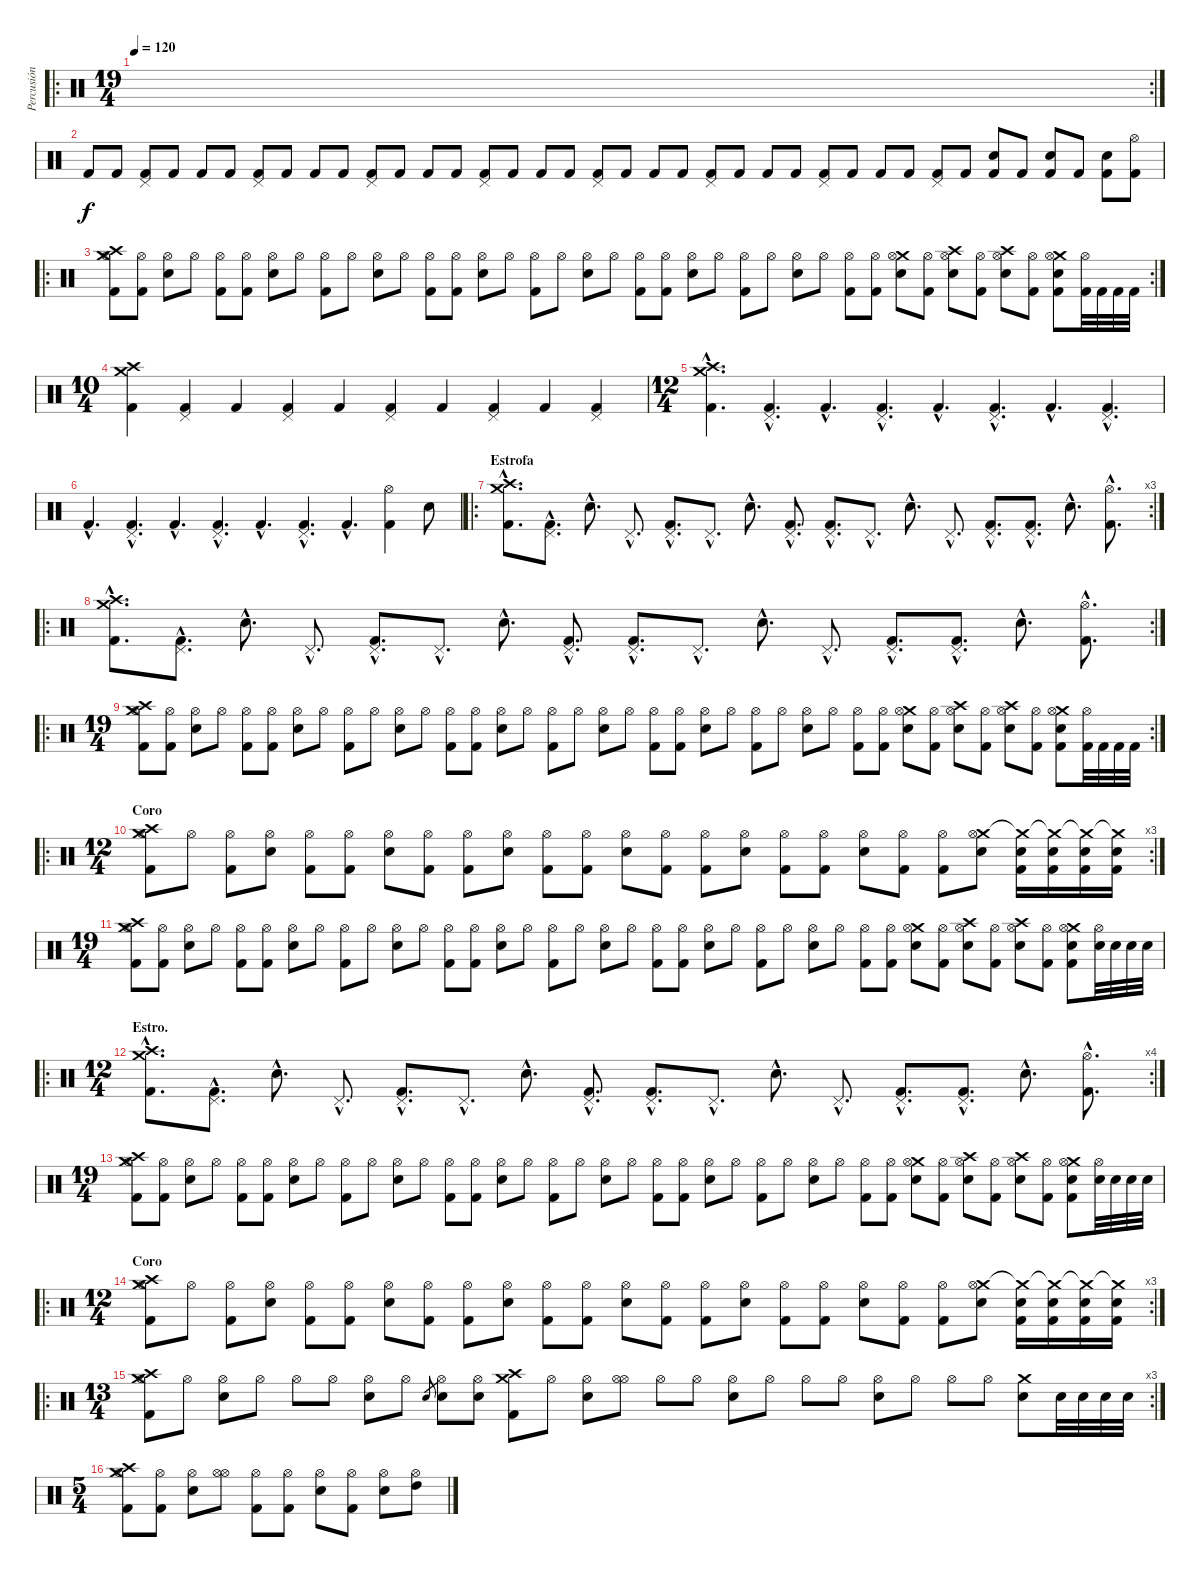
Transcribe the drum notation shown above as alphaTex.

\track ("Percusión" "Percusión") {instrument percussion}
\staff {score}
\articulation defaults
\ro
\rc 2
\ts (19 4)
\tempo 120
\clef neutral
\ks c
|
"Kick (hit) 2".8 "Kick (hit) 2".8 ("Pedal Hi-Hat (hit)" "Kick (hit) 2").8 "Kick (hit) 2".8 "Kick (hit) 2".8 "Kick (hit) 2".8 ("Pedal Hi-Hat (hit)" "Kick (hit) 2").8 "Kick (hit) 2".8 "Kick (hit) 2".8 "Kick (hit) 2".8 ("Pedal Hi-Hat (hit)" "Kick (hit) 2").8 "Kick (hit) 2".8 "Kick (hit) 2".8 "Kick (hit) 2".8 ("Pedal Hi-Hat (hit)" "Kick (hit) 2").8 "Kick (hit) 2".8 "Kick (hit) 2".8 "Kick (hit) 2".8 ("Pedal Hi-Hat (hit)" "Kick (hit) 2").8 "Kick (hit) 2".8 "Kick (hit) 2".8 "Kick (hit) 2".8 ("Pedal Hi-Hat (hit)" "Kick (hit) 2").8 "Kick (hit) 2".8 "Kick (hit) 2".8 "Kick (hit) 2".8 ("Pedal Hi-Hat (hit)" "Kick (hit) 2").8 "Kick (hit) 2".8 "Kick (hit) 2".8 "Kick (hit) 2".8 ("Pedal Hi-Hat (hit)" "Kick (hit) 2").8 "Kick (hit) 2".8 ("Electric Snare (hit)" "Kick (hit) 2").8 "Kick (hit) 2".8 ("Electric Snare (hit)" "Kick (hit) 2").8 "Kick (hit) 2".8 ("Electric Snare (hit)" "Kick (hit) 2").8 ("Hi-Hat (open)" "Kick (hit) 2").8 |
\ro
\rc 2
("Crash medium (hit)" "Crash high (hit)" "Hi-Hat (open)" "Kick (hit) 2").8 ("Hi-Hat (open)" "Kick (hit) 2").8 ("Hi-Hat (open)" "Electric Snare (hit)").8 "Hi-Hat (open)".8 ("Hi-Hat (open)" "Kick (hit) 2").8 ("Hi-Hat (open)" "Kick (hit) 2").8 ("Hi-Hat (open)" "Electric Snare (hit)").8 "Hi-Hat (open)".8 ("Hi-Hat (open)" "Kick (hit) 2").8 "Hi-Hat (open)".8 ("Hi-Hat (open)" "Electric Snare (hit)").8 "Hi-Hat (open)".8 ("Hi-Hat (open)" "Kick (hit) 2").8 ("Hi-Hat (open)" "Kick (hit) 2").8 ("Hi-Hat (open)" "Electric Snare (hit)").8 "Hi-Hat (open)".8 ("Hi-Hat (open)" "Kick (hit) 2").8 "Hi-Hat (open)".8 ("Hi-Hat (open)" "Electric Snare (hit)").8 "Hi-Hat (open)".8 ("Hi-Hat (open)" "Kick (hit) 2").8 ("Hi-Hat (open)" "Kick (hit) 2").8 ("Hi-Hat (open)" "Electric Snare (hit)").8 "Hi-Hat (open)".8 ("Hi-Hat (open)" "Kick (hit) 2").8 "Hi-Hat (open)".8 ("Hi-Hat (open)" "Electric Snare (hit)").8 "Hi-Hat (open)".8 ("Hi-Hat (open)" "Kick (hit) 2").8 ("Hi-Hat (open)" "Kick (hit) 2").8 ("Crash medium (hit)" "Hi-Hat (open)" "Electric Snare (hit)").8 ("Hi-Hat (open)" "Kick (hit) 2").8 ("Crash high (hit)" "Hi-Hat (open)" "Electric Snare (hit)").8 ("Hi-Hat (open)" "Kick (hit) 2").8 ("Crash high (hit)" "Hi-Hat (open)" "Electric Snare (hit)").8 ("Hi-Hat (open)" "Kick (hit) 2").8 ("Crash medium (hit)" "Hi-Hat (open)" "Electric Snare (hit)" "Kick (hit) 2").8 ("Hi-Hat (open)" "Kick (hit) 2").32 "Kick (hit) 2".32 "Kick (hit) 2".32 "Kick (hit) 2".32 |
\ts (10 4)
("Crash medium (hit)" "Crash high (hit)" "Kick (hit) 2").4 ("Pedal Hi-Hat (hit)" "Kick (hit) 2").4 "Kick (hit) 2".4 ("Pedal Hi-Hat (hit)" "Kick (hit) 2").4 "Kick (hit) 2".4 ("Pedal Hi-Hat (hit)" "Kick (hit) 2").4 "Kick (hit) 2".4 ("Pedal Hi-Hat (hit)" "Kick (hit) 2").4 "Kick (hit) 2".4 ("Pedal Hi-Hat (hit)" "Kick (hit) 2").4 |
\ts (12 4)
("Crash medium (hit)"{hac} "Crash high (hit)"{hac} "Kick (hit) 2"{hac}).4{d} ("Pedal Hi-Hat (hit)"{hac} "Kick (hit) 2"{hac}).4{d} "Kick (hit) 2"{hac}.4{d} ("Pedal Hi-Hat (hit)"{hac} "Kick (hit) 2"{hac}).4{d} "Kick (hit) 2"{hac}.4{d} ("Pedal Hi-Hat (hit)"{hac} "Kick (hit) 2"{hac}).4{d} "Kick (hit) 2"{hac}.4{d} ("Pedal Hi-Hat (hit)"{hac} "Kick (hit) 2"{hac}).4{d} |
"Kick (hit) 2"{hac}.4{d} ("Pedal Hi-Hat (hit)"{hac} "Kick (hit) 2"{hac}).4{d} "Kick (hit) 2"{hac}.4{d} ("Pedal Hi-Hat (hit)"{hac} "Kick (hit) 2"{hac}).4{d} "Kick (hit) 2"{hac}.4{d} ("Pedal Hi-Hat (hit)"{hac} "Kick (hit) 2"{hac}).4{d} "Kick (hit) 2"{hac}.4{d} ("Hi-Hat (open)" "Kick (hit) 2").4 "Electric Snare (hit)".8 |
\ro
\rc 3
\section ("" "Estrofa")
("Crash medium (hit)"{hac} "Crash high (hit)"{hac} "Kick (hit) 2"{hac}).8{d} ("Kick (hit) 2"{hac} "Pedal Hi-Hat (hit)"{hac}).8{d} "Electric Snare (hit)"{hac}.8{d} "Pedal Hi-Hat (hit)"{hac}.8{d} ("Kick (hit) 2"{hac} "Pedal Hi-Hat (hit)"{hac}).8{d} "Pedal Hi-Hat (hit)"{hac}.8{d} "Electric Snare (hit)"{hac}.8{d} ("Kick (hit) 2"{hac} "Pedal Hi-Hat (hit)"{hac}).8{d} ("Kick (hit) 2"{hac} "Pedal Hi-Hat (hit)"{hac}).8{d} "Pedal Hi-Hat (hit)"{hac}.8{d} "Electric Snare (hit)"{hac}.8{d} "Pedal Hi-Hat (hit)"{hac}.8{d} ("Kick (hit) 2"{hac} "Pedal Hi-Hat (hit)"{hac}).8{d} ("Kick (hit) 2"{hac} "Pedal Hi-Hat (hit)"{hac}).8{d} "Electric Snare (hit)"{hac}.8{d} ("Hi-Hat (open)"{hac} "Kick (hit) 2"{hac}).8{d} |
\ro
\rc 2
("Crash medium (hit)"{hac} "Crash high (hit)"{hac} "Kick (hit) 2"{hac}).8{d} ("Kick (hit) 2"{hac} "Pedal Hi-Hat (hit)"{hac}).8{d} "Electric Snare (hit)"{hac}.8{d} "Pedal Hi-Hat (hit)"{hac}.8{d} ("Kick (hit) 2"{hac} "Pedal Hi-Hat (hit)"{hac}).8{d} "Pedal Hi-Hat (hit)"{hac}.8{d} "Electric Snare (hit)"{hac}.8{d} ("Kick (hit) 2"{hac} "Pedal Hi-Hat (hit)"{hac}).8{d} ("Kick (hit) 2"{hac} "Pedal Hi-Hat (hit)"{hac}).8{d} "Pedal Hi-Hat (hit)"{hac}.8{d} "Electric Snare (hit)"{hac}.8{d} "Pedal Hi-Hat (hit)"{hac}.8{d} ("Kick (hit) 2"{hac} "Pedal Hi-Hat (hit)"{hac}).8{d} ("Kick (hit) 2"{hac} "Pedal Hi-Hat (hit)"{hac}).8{d} "Electric Snare (hit)"{hac}.8{d} ("Hi-Hat (open)"{hac} "Kick (hit) 2"{hac}).8{d} |
\ro
\rc 2
\ts (19 4)
("Crash medium (hit)" "Crash high (hit)" "Hi-Hat (open)" "Kick (hit) 2").8 ("Hi-Hat (open)" "Kick (hit) 2").8 ("Hi-Hat (open)" "Electric Snare (hit)").8 "Hi-Hat (open)".8 ("Hi-Hat (open)" "Kick (hit) 2").8 ("Hi-Hat (open)" "Kick (hit) 2").8 ("Hi-Hat (open)" "Electric Snare (hit)").8 "Hi-Hat (open)".8 ("Hi-Hat (open)" "Kick (hit) 2").8 "Hi-Hat (open)".8 ("Hi-Hat (open)" "Electric Snare (hit)").8 "Hi-Hat (open)".8 ("Hi-Hat (open)" "Kick (hit) 2").8 ("Hi-Hat (open)" "Kick (hit) 2").8 ("Hi-Hat (open)" "Electric Snare (hit)").8 "Hi-Hat (open)".8 ("Hi-Hat (open)" "Kick (hit) 2").8 "Hi-Hat (open)".8 ("Hi-Hat (open)" "Electric Snare (hit)").8 "Hi-Hat (open)".8 ("Hi-Hat (open)" "Kick (hit) 2").8 ("Hi-Hat (open)" "Kick (hit) 2").8 ("Hi-Hat (open)" "Electric Snare (hit)").8 "Hi-Hat (open)".8 ("Hi-Hat (open)" "Kick (hit) 2").8 "Hi-Hat (open)".8 ("Hi-Hat (open)" "Electric Snare (hit)").8 "Hi-Hat (open)".8 ("Hi-Hat (open)" "Kick (hit) 2").8 ("Hi-Hat (open)" "Kick (hit) 2").8 ("Crash medium (hit)" "Hi-Hat (open)" "Electric Snare (hit)").8 ("Hi-Hat (open)" "Kick (hit) 2").8 ("Crash high (hit)" "Hi-Hat (open)" "Electric Snare (hit)").8 ("Hi-Hat (open)" "Kick (hit) 2").8 ("Crash high (hit)" "Hi-Hat (open)" "Electric Snare (hit)").8 ("Hi-Hat (open)" "Kick (hit) 2").8 ("Crash medium (hit)" "Hi-Hat (open)" "Electric Snare (hit)" "Kick (hit) 2").8 ("Hi-Hat (open)" "Kick (hit) 2").32 "Kick (hit) 2".32 "Kick (hit) 2".32 "Kick (hit) 2".32 |
\ro
\rc 3
\ts (12 4)
\section ("" "Coro")
("Crash medium (hit)" "Crash high (hit)" "Hi-Hat (open)" "Kick (hit) 2").8 "Hi-Hat (open)".8 ("Hi-Hat (open)" "Kick (hit) 2").8 ("Hi-Hat (open)" "Electric Snare (hit)").8 ("Hi-Hat (open)" "Kick (hit) 2").8 ("Hi-Hat (open)" "Kick (hit) 2").8 ("Hi-Hat (open)" "Electric Snare (hit)").8 ("Hi-Hat (open)" "Kick (hit) 2").8 ("Hi-Hat (open)" "Kick (hit) 2").8 ("Hi-Hat (open)" "Electric Snare (hit)").8 ("Hi-Hat (open)" "Kick (hit) 2").8 ("Hi-Hat (open)" "Kick (hit) 2").8 ("Hi-Hat (open)" "Electric Snare (hit)").8 ("Hi-Hat (open)" "Kick (hit) 2").8 ("Hi-Hat (open)" "Kick (hit) 2").8 ("Hi-Hat (open)" "Electric Snare (hit)").8 ("Hi-Hat (open)" "Kick (hit) 2").8 ("Hi-Hat (open)" "Kick (hit) 2").8 ("Hi-Hat (open)" "Electric Snare (hit)").8 ("Hi-Hat (open)" "Kick (hit) 2").8 ("Hi-Hat (open)" "Kick (hit) 2").8 ("Crash medium (hit)" "Hi-Hat (open)" "Electric Snare (hit)").8 ("Crash medium (hit)"{t} "Electric Snare (hit)" "Kick (hit) 2").16 ("Crash medium (hit)"{t} "Electric Snare (hit)" "Kick (hit) 2").16 ("Crash medium (hit)"{t} "Electric Snare (hit)" "Kick (hit) 2").16 ("Crash medium (hit)"{t} "Electric Snare (hit)" "Kick (hit) 2").16 |
\ts (19 4)
("Crash medium (hit)" "Crash high (hit)" "Hi-Hat (open)" "Kick (hit) 2").8 ("Hi-Hat (open)" "Kick (hit) 2").8 ("Hi-Hat (open)" "Electric Snare (hit)").8 "Hi-Hat (open)".8 ("Hi-Hat (open)" "Kick (hit) 2").8 ("Hi-Hat (open)" "Kick (hit) 2").8 ("Hi-Hat (open)" "Electric Snare (hit)").8 "Hi-Hat (open)".8 ("Hi-Hat (open)" "Kick (hit) 2").8 "Hi-Hat (open)".8 ("Hi-Hat (open)" "Electric Snare (hit)").8 "Hi-Hat (open)".8 ("Hi-Hat (open)" "Kick (hit) 2").8 ("Hi-Hat (open)" "Kick (hit) 2").8 ("Hi-Hat (open)" "Electric Snare (hit)").8 "Hi-Hat (open)".8 ("Hi-Hat (open)" "Kick (hit) 2").8 "Hi-Hat (open)".8 ("Hi-Hat (open)" "Electric Snare (hit)").8 "Hi-Hat (open)".8 ("Hi-Hat (open)" "Kick (hit) 2").8 ("Hi-Hat (open)" "Kick (hit) 2").8 ("Hi-Hat (open)" "Electric Snare (hit)").8 "Hi-Hat (open)".8 ("Hi-Hat (open)" "Kick (hit) 2").8 "Hi-Hat (open)".8 ("Hi-Hat (open)" "Electric Snare (hit)").8 "Hi-Hat (open)".8 ("Hi-Hat (open)" "Kick (hit) 2").8 ("Hi-Hat (open)" "Kick (hit) 2").8 ("Crash medium (hit)" "Hi-Hat (open)" "Electric Snare (hit)").8 ("Hi-Hat (open)" "Kick (hit) 2").8 ("Crash high (hit)" "Hi-Hat (open)" "Electric Snare (hit)").8 ("Hi-Hat (open)" "Kick (hit) 2").8 ("Crash high (hit)" "Hi-Hat (open)" "Electric Snare (hit)").8 ("Hi-Hat (open)" "Kick (hit) 2").8 ("Crash medium (hit)" "Hi-Hat (open)" "Electric Snare (hit)" "Kick (hit) 2").8 ("Hi-Hat (open)" "Electric Snare (hit)").32 "Electric Snare (hit)".32 "Electric Snare (hit)".32 "Electric Snare (hit)".32 |
\ro
\rc 4
\ts (12 4)
\section ("" "Estro.")
("Crash medium (hit)"{hac} "Crash high (hit)"{hac} "Kick (hit) 2"{hac}).8{d} ("Kick (hit) 2"{hac} "Pedal Hi-Hat (hit)"{hac}).8{d} "Electric Snare (hit)"{hac}.8{d} "Pedal Hi-Hat (hit)"{hac}.8{d} ("Kick (hit) 2"{hac} "Pedal Hi-Hat (hit)"{hac}).8{d} "Pedal Hi-Hat (hit)"{hac}.8{d} "Electric Snare (hit)"{hac}.8{d} ("Kick (hit) 2"{hac} "Pedal Hi-Hat (hit)"{hac}).8{d} ("Kick (hit) 2"{hac} "Pedal Hi-Hat (hit)"{hac}).8{d} "Pedal Hi-Hat (hit)"{hac}.8{d} "Electric Snare (hit)"{hac}.8{d} "Pedal Hi-Hat (hit)"{hac}.8{d} ("Kick (hit) 2"{hac} "Pedal Hi-Hat (hit)"{hac}).8{d} ("Kick (hit) 2"{hac} "Pedal Hi-Hat (hit)"{hac}).8{d} "Electric Snare (hit)"{hac}.8{d} ("Hi-Hat (open)"{hac} "Kick (hit) 2"{hac}).8{d} |
\ts (19 4)
("Crash medium (hit)" "Crash high (hit)" "Hi-Hat (open)" "Kick (hit) 2").8 ("Hi-Hat (open)" "Kick (hit) 2").8 ("Hi-Hat (open)" "Electric Snare (hit)").8 "Hi-Hat (open)".8 ("Hi-Hat (open)" "Kick (hit) 2").8 ("Hi-Hat (open)" "Kick (hit) 2").8 ("Hi-Hat (open)" "Electric Snare (hit)").8 "Hi-Hat (open)".8 ("Hi-Hat (open)" "Kick (hit) 2").8 "Hi-Hat (open)".8 ("Hi-Hat (open)" "Electric Snare (hit)").8 "Hi-Hat (open)".8 ("Hi-Hat (open)" "Kick (hit) 2").8 ("Hi-Hat (open)" "Kick (hit) 2").8 ("Hi-Hat (open)" "Electric Snare (hit)").8 "Hi-Hat (open)".8 ("Hi-Hat (open)" "Kick (hit) 2").8 "Hi-Hat (open)".8 ("Hi-Hat (open)" "Electric Snare (hit)").8 "Hi-Hat (open)".8 ("Hi-Hat (open)" "Kick (hit) 2").8 ("Hi-Hat (open)" "Kick (hit) 2").8 ("Hi-Hat (open)" "Electric Snare (hit)").8 "Hi-Hat (open)".8 ("Hi-Hat (open)" "Kick (hit) 2").8 "Hi-Hat (open)".8 ("Hi-Hat (open)" "Electric Snare (hit)").8 "Hi-Hat (open)".8 ("Hi-Hat (open)" "Kick (hit) 2").8 ("Hi-Hat (open)" "Kick (hit) 2").8 ("Crash medium (hit)" "Hi-Hat (open)" "Electric Snare (hit)").8 ("Hi-Hat (open)" "Kick (hit) 2").8 ("Crash high (hit)" "Hi-Hat (open)" "Electric Snare (hit)").8 ("Hi-Hat (open)" "Kick (hit) 2").8 ("Crash high (hit)" "Hi-Hat (open)" "Electric Snare (hit)").8 ("Hi-Hat (open)" "Kick (hit) 2").8 ("Crash medium (hit)" "Hi-Hat (open)" "Electric Snare (hit)" "Kick (hit) 2").8 ("Hi-Hat (open)" "Electric Snare (hit)").32 "Electric Snare (hit)".32 "Electric Snare (hit)".32 "Electric Snare (hit)".32 |
\ro
\rc 3
\ts (12 4)
\section ("" "Coro")
("Crash medium (hit)" "Crash high (hit)" "Hi-Hat (open)" "Kick (hit) 2").8 "Hi-Hat (open)".8 ("Hi-Hat (open)" "Kick (hit) 2").8 ("Hi-Hat (open)" "Electric Snare (hit)").8 ("Hi-Hat (open)" "Kick (hit) 2").8 ("Hi-Hat (open)" "Kick (hit) 2").8 ("Hi-Hat (open)" "Electric Snare (hit)").8 ("Hi-Hat (open)" "Kick (hit) 2").8 ("Hi-Hat (open)" "Kick (hit) 2").8 ("Hi-Hat (open)" "Electric Snare (hit)").8 ("Hi-Hat (open)" "Kick (hit) 2").8 ("Hi-Hat (open)" "Kick (hit) 2").8 ("Hi-Hat (open)" "Electric Snare (hit)").8 ("Hi-Hat (open)" "Kick (hit) 2").8 ("Hi-Hat (open)" "Kick (hit) 2").8 ("Hi-Hat (open)" "Electric Snare (hit)").8 ("Hi-Hat (open)" "Kick (hit) 2").8 ("Hi-Hat (open)" "Kick (hit) 2").8 ("Hi-Hat (open)" "Electric Snare (hit)").8 ("Hi-Hat (open)" "Kick (hit) 2").8 ("Hi-Hat (open)" "Kick (hit) 2").8 ("Crash medium (hit)" "Hi-Hat (open)" "Electric Snare (hit)").8 ("Crash medium (hit)"{t} "Electric Snare (hit)" "Kick (hit) 2").16 ("Crash medium (hit)"{t} "Electric Snare (hit)" "Kick (hit) 2").16 ("Crash medium (hit)"{t} "Electric Snare (hit)" "Kick (hit) 2").16 ("Crash medium (hit)"{t} "Electric Snare (hit)" "Kick (hit) 2").16 |
\ro
\rc 3
\ts (13 4)
("Crash medium (hit)" "Crash high (hit)" "Hi-Hat (open)" "Kick (hit) 2").8 "Hi-Hat (open)".8 ("Hi-Hat (open)" "Electric Snare (hit)").8 "Hi-Hat (open)".8 "Hi-Hat (open)".8 "Hi-Hat (open)".8 ("Hi-Hat (open)" "Electric Snare (hit)").8 "Hi-Hat (open)".8 "Electric Snare (hit)".8{gr} ("Hi-Hat (open)" "Electric Snare (hit)").8 ("Hi-Hat (open)" "Electric Snare (hit)").8 ("Crash medium (hit)" "Crash high (hit)" "Kick (hit) 2").8 "Hi-Hat (open)".8 ("Hi-Hat (open)" "Electric Snare (hit)").8 ("Hi-Hat (open)" "Hi-Hat (open)").8 "Hi-Hat (open)".8 "Hi-Hat (open)".8 ("Hi-Hat (open)" "Electric Snare (hit)").8 "Hi-Hat (open)".8 "Hi-Hat (open)".8 "Hi-Hat (open)".8 ("Hi-Hat (open)" "Electric Snare (hit)").8 "Hi-Hat (open)".8 "Hi-Hat (open)".8 "Hi-Hat (open)".8 ("Crash medium (hit)" "Electric Snare (hit)").8 "Electric Snare (hit)".32 "Electric Snare (hit)".32 "Electric Snare (hit)".32 "Electric Snare (hit)".32 |
\ts (5 4)
("Crash medium (hit)" "Crash high (hit)" "Hi-Hat (open)" "Kick (hit) 2").8 ("Hi-Hat (open)" "Kick (hit) 2").8 ("Hi-Hat (open)" "Electric Snare (hit)").8 ("Hi-Hat (open)" "Hi-Hat (open)").8 ("Hi-Hat (open)" "Kick (hit) 2").8 ("Hi-Hat (open)" "Kick (hit) 2").8 ("Hi-Hat (open)" "Electric Snare (hit)").8 ("Hi-Hat (open)" "Kick (hit) 2").8 ("Hi-Hat (open)" "Electric Snare (hit)").8 ("Hi-Hat (open)" "High Tom (hit)").8
